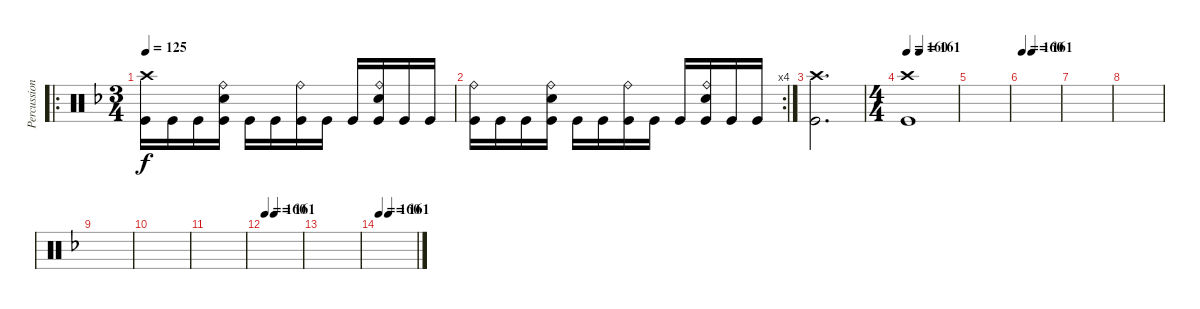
\track ("Percussion" "Percussion") {instrument percussion}
\staff {score}
\articulation defaults
\ro
\ts (3 4)
\tempo 125
\clef neutral
\ks f
("Crash high (hit)" "Kick (hit)").16{dy f} "Kick (hit)".16 "Kick (hit)".16 ("Ride (bell)" "Electric Snare (hit)" "Kick (hit)").16 "Kick (hit)".16 "Kick (hit)".16 ("Ride (bell)" "Kick (hit)").16 "Kick (hit)".16 "Kick (hit)".16 ("Ride (bell)" "Electric Snare (hit)" "Kick (hit)").16 "Kick (hit)".16 "Kick (hit)".16 |
\rc 4
("Ride (bell)" "Kick (hit)").16 "Kick (hit)".16 "Kick (hit)".16 ("Ride (bell)" "Electric Snare (hit)" "Kick (hit)").16 "Kick (hit)".16 "Kick (hit)".16 ("Ride (bell)" "Kick (hit)").16 "Kick (hit)".16 "Kick (hit)".16 ("Ride (bell)" "Electric Snare (hit)" "Kick (hit)").16 "Kick (hit)".16 "Kick (hit)".16 |
("Crash high (hit)" "Kick (hit)").2{d} |
\ts (4 4)
\tempo 160
\tempo (161 0.25)
("Crash high (hit)" "Kick (hit)").1 |
|
\tempo 160
\tempo (161 0.25)
|
|
|
|
|
|
\tempo 160
\tempo (161 0.25)
|
|
\tempo 160
\tempo (161 0.25)
